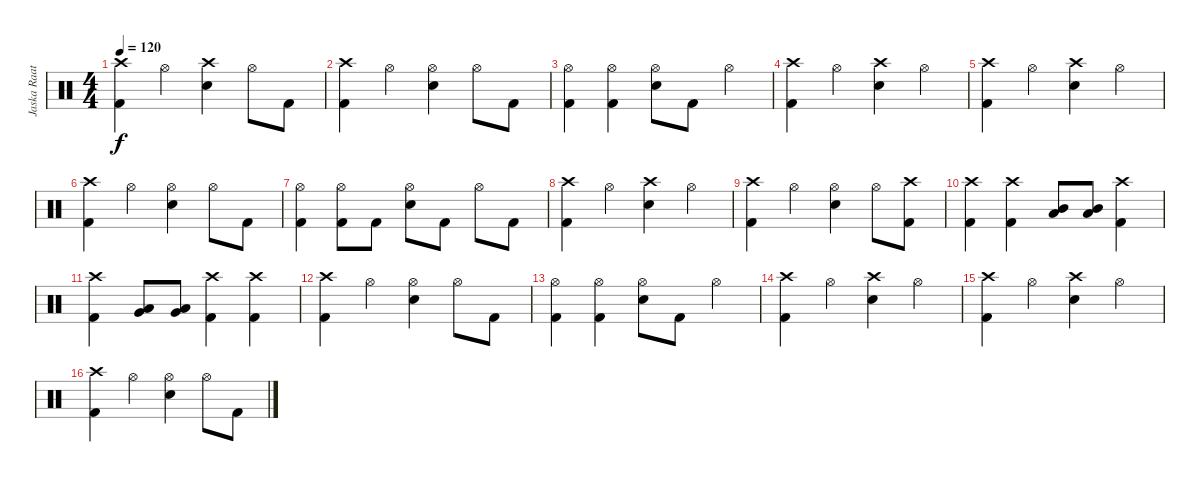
\track ("Jaska Raatikainen" "Jaska Raat") {instrument percussion}
\staff {score}
\articulation defaults
\ts (4 4)
\tempo 120
\clef neutral
\ks c
("Crash high (hit)" "Kick (hit) 2").4{dy f} "Hi-Hat (open)".4 ("Crash high (hit)" "Snare (hit) 2").4 "Hi-Hat (open)".8 "Kick (hit) 2".8 |
("Crash high (hit)" "Kick (hit) 2").4 "Hi-Hat (open)".4 ("Hi-Hat (open)" "Snare (hit) 2").4 "Hi-Hat (open)".8 "Kick (hit) 2".8 |
("Hi-Hat (open)" "Kick (hit) 2").4 ("Hi-Hat (open)" "Kick (hit) 2").4 ("Hi-Hat (open)" "Snare (hit) 2").8 "Kick (hit) 2".8 "Hi-Hat (open)".4 |
("Crash high (hit)" "Kick (hit) 2").4 "Hi-Hat (open)".4 ("Crash high (hit)" "Snare (hit) 2").4 "Hi-Hat (open)".4 |
("Crash high (hit)" "Kick (hit) 2").4 "Hi-Hat (open)".4 ("Crash high (hit)" "Snare (hit) 2").4 "Hi-Hat (open)".4 |
("Crash high (hit)" "Kick (hit) 2").4 "Hi-Hat (open)".4 ("Hi-Hat (open)" "Snare (hit) 2").4 "Hi-Hat (open)".8 "Kick (hit) 2".8 |
("Hi-Hat (open)" "Kick (hit) 2").4 ("Hi-Hat (open)" "Kick (hit) 2").8 "Kick (hit) 2".8 ("Hi-Hat (open)" "Snare (hit) 2").8 "Kick (hit) 2".8 "Hi-Hat (open)".8 "Kick (hit) 2".8 |
("Crash high (hit)" "Kick (hit) 2").4 "Hi-Hat (open)".4 ("Crash high (hit)" "Snare (hit) 2").4 "Hi-Hat (open)".4 |
("Crash high (hit)" "Kick (hit) 2").4 "Hi-Hat (open)".4 ("Hi-Hat (open)" "Snare (hit) 2").4 "Hi-Hat (open)".8 ("Crash high (hit)" "Kick (hit) 2").8 |
("Crash high (hit)" "Kick (hit) 2").4 ("Crash high (hit)" "Kick (hit) 2").4 ("Mid Tom (hit)" "Low Tom (hit)").8 ("Mid Tom (hit)" "Low Tom (hit)").8 ("Crash high (hit)" "Kick (hit) 2").4 |
("Crash high (hit)" "Kick (hit) 2").4 ("Low Tom (hit)" "Very Low Tom (hit)").8 ("Low Tom (hit)" "Very Low Tom (hit)").8 ("Crash high (hit)" "Kick (hit) 2").4 ("Crash high (hit)" "Kick (hit) 2").4 |
("Crash high (hit)" "Kick (hit) 2").4 "Hi-Hat (open)".4 ("Hi-Hat (open)" "Snare (hit) 2").4 "Hi-Hat (open)".8 "Kick (hit) 2".8 |
("Hi-Hat (open)" "Kick (hit) 2").4 ("Hi-Hat (open)" "Kick (hit) 2").4 ("Hi-Hat (open)" "Snare (hit) 2").8 "Kick (hit) 2".8 "Hi-Hat (open)".4 |
("Crash high (hit)" "Kick (hit) 2").4 "Hi-Hat (open)".4 ("Crash high (hit)" "Snare (hit) 2").4 "Hi-Hat (open)".4 |
("Crash high (hit)" "Kick (hit) 2").4 "Hi-Hat (open)".4 ("Crash high (hit)" "Snare (hit) 2").4 "Hi-Hat (open)".4 |
("Crash high (hit)" "Kick (hit) 2").4 "Hi-Hat (open)".4 ("Hi-Hat (open)" "Snare (hit) 2").4 "Hi-Hat (open)".8 "Kick (hit) 2".8
